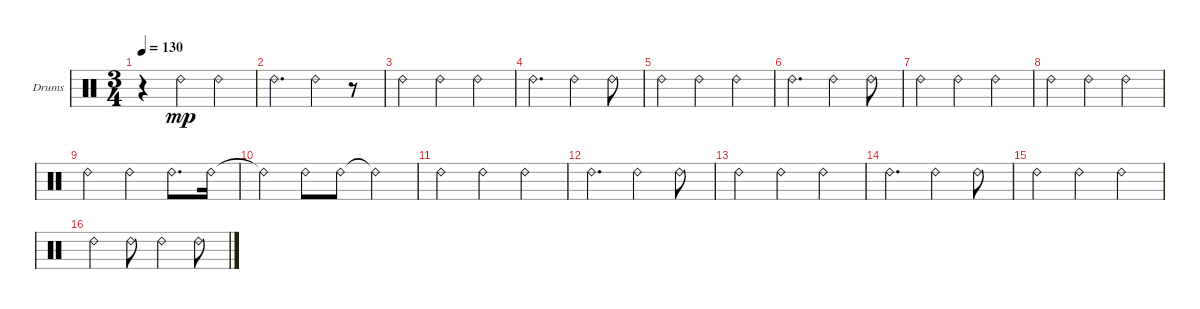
\bracketExtendMode groupsimilarinstruments
\firstSystemTrackNameOrientation horizontal
\otherSystemsTrackNameOrientation horizontal
\track ("OH" "Drums") {instrument percussion}
\staff {score}
\articulation defaults
\ts (3 4)
\tempo 130
\clef neutral
\ks c
r.4{dy mp} "Ride (bell) 2".4 "Ride (bell) 2".4 |
"Ride (bell) 2".4{d} "Ride (bell) 2".4 r.8 |
"Ride (bell) 2".4 "Ride (bell) 2".4 "Ride (bell) 2".4 |
"Ride (bell) 2".4{d} "Ride (bell) 2".4 "Ride (bell) 2".8 |
"Ride (bell) 2".4 "Ride (bell) 2".4 "Ride (bell) 2".4 |
"Ride (bell) 2".4{d} "Ride (bell) 2".4 "Ride (bell) 2".8 |
"Ride (bell) 2".4 "Ride (bell) 2".4 "Ride (bell) 2".4 |
"Ride (bell) 2".4 "Ride (bell) 2".4 "Ride (bell) 2".4 |
"Ride (bell) 2".4 "Ride (bell) 2".4 "Ride (bell) 2".8{d} "Ride (bell) 2".16 |
"Ride (bell) 2"{t}.4 "Ride (bell) 2".8 "Ride (bell) 2".8 "Ride (bell) 2"{t}.4 |
"Ride (bell) 2".4 "Ride (bell) 2".4 "Ride (bell) 2".4 |
"Ride (bell) 2".4{d} "Ride (bell) 2".4 "Ride (bell) 2".8 |
"Ride (bell) 2".4 "Ride (bell) 2".4 "Ride (bell) 2".4 |
"Ride (bell) 2".4{d} "Ride (bell) 2".4 "Ride (bell) 2".8 |
"Ride (bell) 2".4 "Ride (bell) 2".4 "Ride (bell) 2".4 |
"Ride (bell) 2".4 "Ride (bell) 2".8 "Ride (bell) 2".4 "Ride (bell) 2".8
